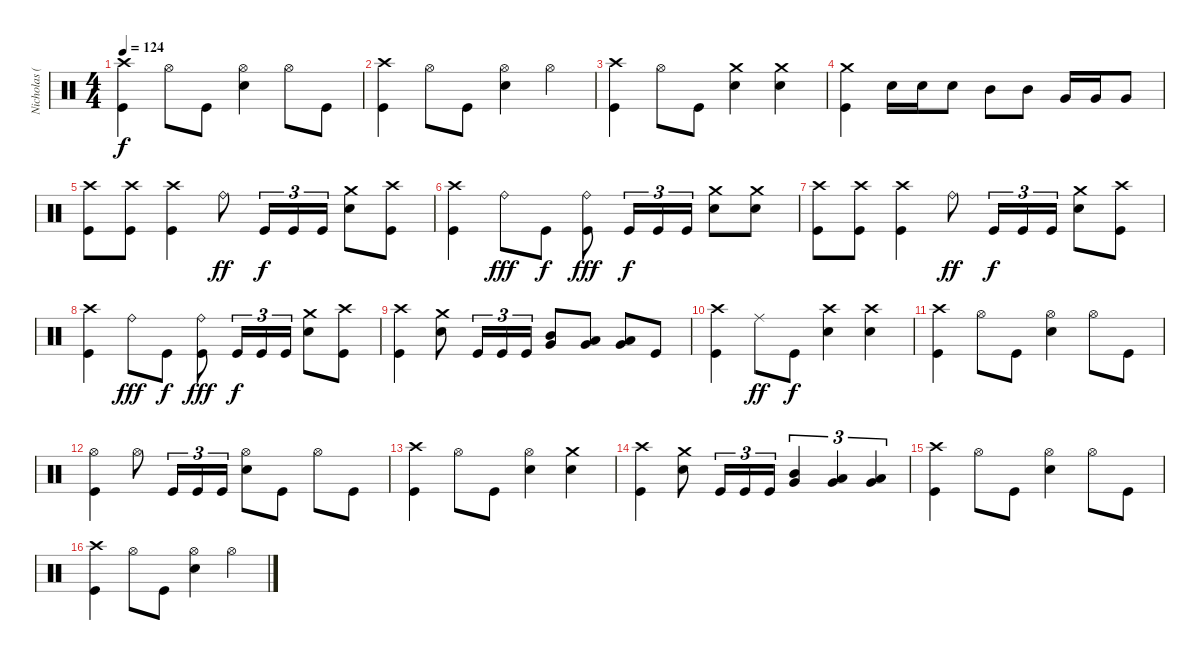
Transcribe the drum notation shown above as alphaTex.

\track ("Nicholas (Drums)" "Nicholas (") {instrument percussion}
\staff {score}
\articulation defaults
\ts (4 4)
\tempo 124
\clef neutral
\ks c
("Crash high (hit)" "Kick (hit)").4{dy f} "Hi-Hat (open)".8 "Kick (hit)".8 ("Hi-Hat (open)" "Electric Snare (hit)").4 "Hi-Hat (open)".8 "Kick (hit)".8 |
("Crash high (hit)" "Kick (hit)").4 "Hi-Hat (open)".8 "Kick (hit)".8 ("Hi-Hat (open)" "Electric Snare (hit)").4 "Hi-Hat (open)".4 |
("Crash high (hit)" "Kick (hit)").4 "Hi-Hat (open)".8 "Kick (hit)".8 ("Crash medium (hit)" "Electric Snare (hit)").4 ("Crash medium (hit)" "Electric Snare (hit)").4 |
("Crash medium (hit)" "Kick (hit)").4 "Electric Snare (hit)".16 "Electric Snare (hit)".16 "Electric Snare (hit)".8 "Mid Tom (hit)".8 "Mid Tom (hit)".8 "Very Low Tom (hit)".16 "Very Low Tom (hit)".16 "Very Low Tom (hit)".8 |
("Crash high (hit)" "Kick (hit)").8 ("Crash high (hit)" "Kick (hit)").8 ("Crash high (hit)" "Kick (hit)").4 "Ride (bell)".8{dy ff} "Kick (hit)".16{tu (3 2) dy f} "Kick (hit)".16{tu (3 2)} "Kick (hit)".16{tu (3 2)} ("Crash medium (hit)" "Electric Snare (hit)").8 ("Crash high (hit)" "Kick (hit)").8 |
("Crash high (hit)" "Kick (hit)").4 "Ride (bell)".8{dy fff} "Kick (hit)".8{dy f} ("Ride (bell)" "Kick (hit)").8{dy fff} "Kick (hit)".16{tu (3 2) dy f} "Kick (hit)".16{tu (3 2)} "Kick (hit)".16{tu (3 2)} ("Crash medium (hit)" "Electric Snare (hit)").8 ("Crash medium (hit)" "Electric Snare (hit)").8 |
("Crash high (hit)" "Kick (hit)").8 ("Crash high (hit)" "Kick (hit)").8 ("Crash high (hit)" "Kick (hit)").4 "Ride (bell)".8{dy ff} "Kick (hit)".16{tu (3 2) dy f} "Kick (hit)".16{tu (3 2)} "Kick (hit)".16{tu (3 2)} ("Crash medium (hit)" "Electric Snare (hit)").8 ("Crash high (hit)" "Kick (hit)").8 |
("Crash high (hit)" "Kick (hit)").4 "Ride (bell)".8{dy fff} "Kick (hit)".8{dy f} ("Ride (bell)" "Kick (hit)").8{dy fff} "Kick (hit)".16{tu (3 2) dy f} "Kick (hit)".16{tu (3 2)} "Kick (hit)".16{tu (3 2)} ("Crash medium (hit)" "Electric Snare (hit)").8 ("Crash high (hit)" "Kick (hit)").8 |
("Crash high (hit)" "Kick (hit)").4 ("Crash medium (hit)" "Electric Snare (hit)").8 "Kick (hit)".16{tu (3 2)} "Kick (hit)".16{tu (3 2)} "Kick (hit)".16{tu (3 2)} ("Mid Tom (hit)" "Very Low Tom (hit)").8{bu 60} ("Low Tom (hit)" "Very Low Tom (hit)").8{bu 60} ("Low Tom (hit)" "Very Low Tom (hit)").8{bu 60} "Kick (hit)".8 |
("Crash high (hit)" "Kick (hit)").4 "Ride (middle)".8{dy ff} "Kick (hit)".8{dy f} ("Crash high (hit)" "Electric Snare (hit)").4 ("Crash high (hit)" "Electric Snare (hit)").4 |
("Crash high (hit)" "Kick (hit)").4 "Hi-Hat (open)".8 "Kick (hit)".8 ("Hi-Hat (open)" "Electric Snare (hit)").4 "Hi-Hat (open)".8 "Kick (hit)".8 |
("Hi-Hat (open)" "Kick (hit)").4 "Hi-Hat (open)".8 "Kick (hit)".16{tu (3 2)} "Kick (hit)".16{tu (3 2)} "Kick (hit)".16{tu (3 2)} ("Hi-Hat (open)" "Electric Snare (hit)").8 "Kick (hit)".8 "Hi-Hat (open)".8 "Kick (hit)".8 |
("Crash high (hit)" "Kick (hit)").4 "Hi-Hat (open)".8 "Kick (hit)".8 ("Hi-Hat (open)" "Electric Snare (hit)").4 ("Crash medium (hit)" "Electric Snare (hit)").4 |
("Crash high (hit)" "Kick (hit)").4 ("Crash medium (hit)" "Electric Snare (hit)").8 "Kick (hit)".16{tu (3 2)} "Kick (hit)".16{tu (3 2)} "Kick (hit)".16{tu (3 2)} ("Mid Tom (hit)" "Very Low Tom (hit)").4{tu (3 2) bu 60} ("Low Tom (hit)" "Very Low Tom (hit)").4{tu (3 2) bu 60} ("Low Tom (hit)" "Very Low Tom (hit)").4{tu (3 2) bu 60} |
("Crash high (hit)" "Kick (hit)").4 "Hi-Hat (open)".8 "Kick (hit)".8 ("Hi-Hat (open)" "Electric Snare (hit)").4 "Hi-Hat (open)".8 "Kick (hit)".8 |
("Crash high (hit)" "Kick (hit)").4 "Hi-Hat (open)".8 "Kick (hit)".8 ("Hi-Hat (open)" "Electric Snare (hit)").4 "Hi-Hat (open)".4
